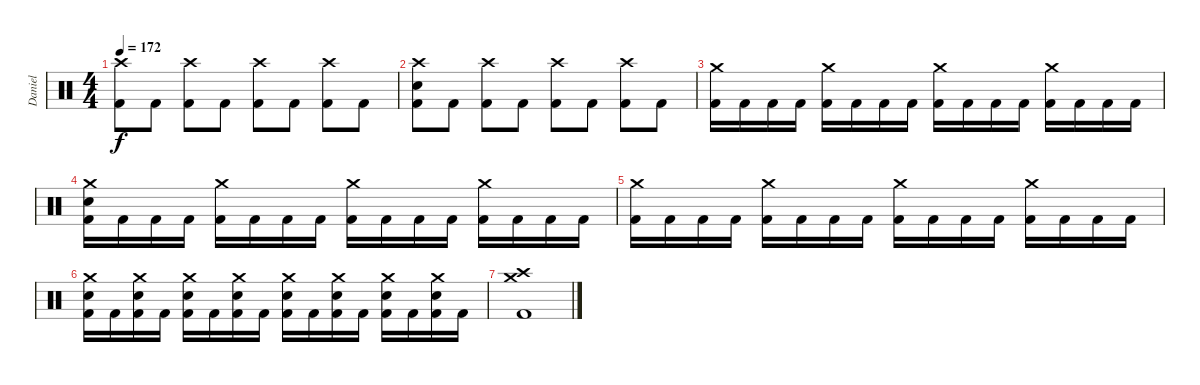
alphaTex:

\track ("Daniel" "Daniel") {instrument percussion}
\staff {score}
\articulation defaults
\ts (4 4)
\tempo 172
\clef neutral
\ks c
("Crash high (hit)" "Kick (hit) 2").8{dy f} "Kick (hit) 2".8 ("Crash high (hit)" "Kick (hit) 2").8 "Kick (hit) 2".8 ("Crash high (hit)" "Kick (hit) 2").8 "Kick (hit) 2".8 ("Crash high (hit)" "Kick (hit) 2").8 "Kick (hit) 2".8 |
("Crash high (hit)" "Electric Snare (hit)" "Kick (hit) 2").8 "Kick (hit) 2".8 ("Crash high (hit)" "Kick (hit) 2").8 "Kick (hit) 2".8 ("Crash high (hit)" "Kick (hit) 2").8 "Kick (hit) 2".8 ("Crash high (hit)" "Kick (hit) 2").8 "Kick (hit) 2".8 |
("Crash medium (hit)" "Kick (hit) 2").16 "Kick (hit) 2".16 "Kick (hit) 2".16 "Kick (hit) 2".16 ("Crash medium (hit)" "Kick (hit) 2").16 "Kick (hit) 2".16 "Kick (hit) 2".16 "Kick (hit) 2".16 ("Crash medium (hit)" "Kick (hit) 2").16 "Kick (hit) 2".16 "Kick (hit) 2".16 "Kick (hit) 2".16 ("Crash medium (hit)" "Kick (hit) 2").16 "Kick (hit) 2".16 "Kick (hit) 2".16 "Kick (hit) 2".16 |
("Crash medium (hit)" "Electric Snare (hit)" "Kick (hit) 2").16 "Kick (hit) 2".16 "Kick (hit) 2".16 "Kick (hit) 2".16 ("Crash medium (hit)" "Kick (hit) 2").16 "Kick (hit) 2".16 "Kick (hit) 2".16 "Kick (hit) 2".16 ("Crash medium (hit)" "Kick (hit) 2").16 "Kick (hit) 2".16 "Kick (hit) 2".16 "Kick (hit) 2".16 ("Crash medium (hit)" "Kick (hit) 2").16 "Kick (hit) 2".16 "Kick (hit) 2".16 "Kick (hit) 2".16 |
("Crash medium (hit)" "Kick (hit) 2").16 "Kick (hit) 2".16 "Kick (hit) 2".16 "Kick (hit) 2".16 ("Crash medium (hit)" "Kick (hit) 2").16 "Kick (hit) 2".16 "Kick (hit) 2".16 "Kick (hit) 2".16 ("Crash medium (hit)" "Kick (hit) 2").16 "Kick (hit) 2".16 "Kick (hit) 2".16 "Kick (hit) 2".16 ("Crash medium (hit)" "Kick (hit) 2").16 "Kick (hit) 2".16 "Kick (hit) 2".16 "Kick (hit) 2".16 |
("Crash medium (hit)" "Electric Snare (hit)" "Kick (hit) 2").16 "Kick (hit) 2".16 ("Crash medium (hit)" "Electric Snare (hit)" "Kick (hit) 2").16 "Kick (hit) 2".16 ("Crash medium (hit)" "Electric Snare (hit)" "Kick (hit) 2").16 "Kick (hit) 2".16 ("Crash medium (hit)" "Electric Snare (hit)" "Kick (hit) 2").16 "Kick (hit) 2".16 ("Crash medium (hit)" "Electric Snare (hit)" "Kick (hit) 2").16 "Kick (hit) 2".16 ("Crash medium (hit)" "Electric Snare (hit)" "Kick (hit) 2").16 "Kick (hit) 2".16 ("Crash medium (hit)" "Electric Snare (hit)" "Kick (hit) 2").16 "Kick (hit) 2".16 ("Crash medium (hit)" "Electric Snare (hit)" "Kick (hit) 2").16 "Kick (hit) 2".16 |
("Crash high (hit)" "Crash medium (hit)" "Kick (hit) 2").1
